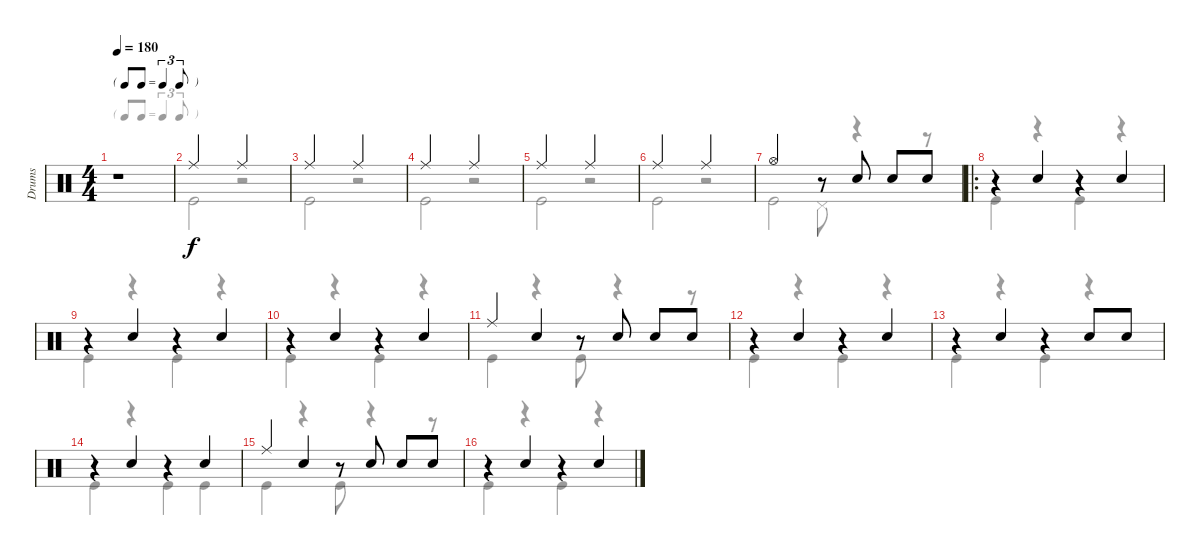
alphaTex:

\track ("Drums" "Drums") {instrument percussion}
\staff {score}
\articulation defaults
\voice
\ts (4 4)
\tf triplet8th
\tempo 180
\clef neutral
\ks c
r.1{dy f} |
"Ride (middle)".2 "Ride (middle)".2 |
"Ride (middle)".2 "Ride (middle)".2 |
"Ride (middle)".2 "Ride (middle)".2 |
"Ride (middle)".2 "Ride (middle)".2 |
"Ride (middle)".2 "Ride (middle)".2 |
"Hi-Hat (open)".2 r.8 "Snare (hit) 2".8 "Snare (hit) 2".8 "Snare (hit) 2".8 |
\ro
r.4 "Snare (hit) 2".4 r.4 "Snare (hit) 2".4 |
r.4 "Snare (hit) 2".4 r.4 "Snare (hit) 2".4 |
r.4 "Snare (hit) 2".4 r.4 "Snare (hit) 2".4 |
"Ride (middle)".4 "Snare (hit) 2".4 r.8 "Snare (hit) 2".8 "Snare (hit) 2".8 "Snare (hit) 2".8 |
r.4 "Snare (hit) 2".4 r.4 "Snare (hit) 2".4 |
r.4 "Snare (hit) 2".4 r.4 "Snare (hit) 2".8 "Snare (hit) 2".8 |
r.4 "Snare (hit) 2".4 r.4 "Snare (hit) 2".4 |
"Ride (middle)".4 "Snare (hit) 2".4 r.8 "Snare (hit) 2".8 "Snare (hit) 2".8 "Snare (hit) 2".8 |
r.4 "Snare (hit) 2".4 r.4 "Snare (hit) 2".4
\voice
\clef neutral
\ottava regular
\simile none
\ks c
r.1{dy f} |
"Kick (hit)".2 r.2 |
"Kick (hit)".2 r.2 |
"Kick (hit)".2 r.2 |
"Kick (hit)".2 r.2 |
"Kick (hit)".2 r.2 |
"Kick (hit)".2 "Pedal Hi-Hat (hit)".8 r.4 r.8 |
"Kick (hit)".4 r.4 "Kick (hit)".4 r.4 |
"Kick (hit)".4 r.4 "Kick (hit)".4 r.4 |
"Kick (hit)".4 r.4 "Kick (hit)".4 r.4 |
"Kick (hit)".4 r.4 "Kick (hit)".8 r.4 r.8 |
"Kick (hit)".4 r.4 "Kick (hit)".4 r.4 |
"Kick (hit)".4 r.4 "Kick (hit)".4 r.4 |
"Kick (hit)".4 r.4 "Kick (hit)".4 "Kick (hit)".4 |
"Kick (hit)".4 r.4 "Kick (hit)".8 r.4 r.8 |
"Kick (hit)".4 r.4 "Kick (hit)".4 r.4
